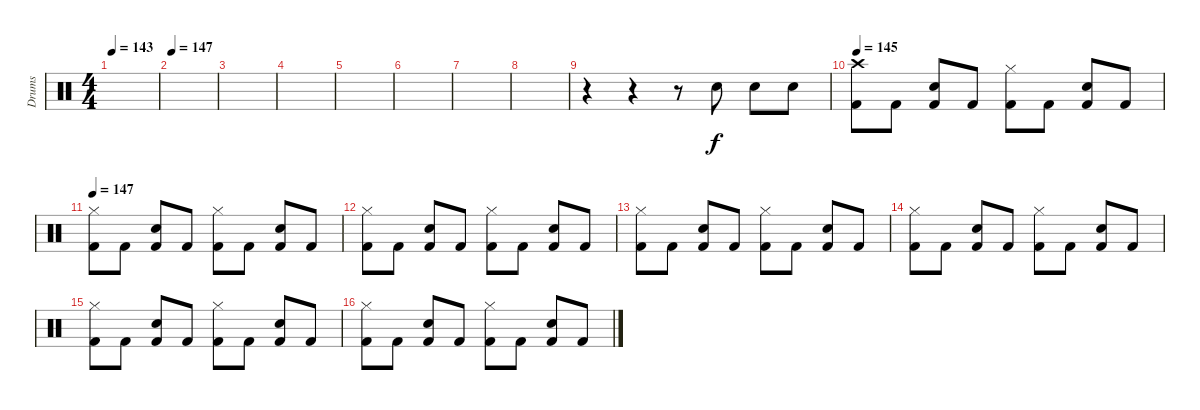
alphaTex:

\track ("Drums" "Drums") {instrument percussion}
\staff {score}
\articulation defaults
\ts (4 4)
\tempo 143
\clef neutral
\ks c
|
\tempo 147
|
|
|
|
|
|
|
r.4 r.4 r.8 "Snare (hit) 2".8 "Snare (hit) 2".8 "Snare (hit) 2".8 |
\tempo 145
("Crash high (hit)" "Kick (hit) 2").8 "Kick (hit) 2".8 ("Snare (hit) 2" "Kick (hit) 2").8 "Kick (hit) 2".8 ("Hi-Hat (closed)" "Kick (hit) 2").8 "Kick (hit) 2".8 ("Snare (hit) 2" "Kick (hit) 2").8 "Kick (hit) 2".8 |
\tempo 147
("Hi-Hat (closed)" "Kick (hit) 2").8 "Kick (hit) 2".8 ("Snare (hit) 2" "Kick (hit) 2").8 "Kick (hit) 2".8 ("Hi-Hat (closed)" "Kick (hit) 2").8 "Kick (hit) 2".8 ("Snare (hit) 2" "Kick (hit) 2").8 "Kick (hit) 2".8 |
("Hi-Hat (closed)" "Kick (hit) 2").8 "Kick (hit) 2".8 ("Snare (hit) 2" "Kick (hit) 2").8 "Kick (hit) 2".8 ("Hi-Hat (closed)" "Kick (hit) 2").8 "Kick (hit) 2".8 ("Snare (hit) 2" "Kick (hit) 2").8 "Kick (hit) 2".8 |
("Hi-Hat (closed)" "Kick (hit) 2").8 "Kick (hit) 2".8 ("Snare (hit) 2" "Kick (hit) 2").8 "Kick (hit) 2".8 ("Hi-Hat (closed)" "Kick (hit) 2").8 "Kick (hit) 2".8 ("Snare (hit) 2" "Kick (hit) 2").8 "Kick (hit) 2".8 |
("Hi-Hat (closed)" "Kick (hit) 2").8 "Kick (hit) 2".8 ("Snare (hit) 2" "Kick (hit) 2").8 "Kick (hit) 2".8 ("Hi-Hat (closed)" "Kick (hit) 2").8 "Kick (hit) 2".8 ("Snare (hit) 2" "Kick (hit) 2").8 "Kick (hit) 2".8 |
("Hi-Hat (closed)" "Kick (hit) 2").8 "Kick (hit) 2".8 ("Snare (hit) 2" "Kick (hit) 2").8 "Kick (hit) 2".8 ("Hi-Hat (closed)" "Kick (hit) 2").8 "Kick (hit) 2".8 ("Snare (hit) 2" "Kick (hit) 2").8 "Kick (hit) 2".8 |
("Hi-Hat (closed)" "Kick (hit) 2").8 "Kick (hit) 2".8 ("Snare (hit) 2" "Kick (hit) 2").8 "Kick (hit) 2".8 ("Hi-Hat (closed)" "Kick (hit) 2").8 "Kick (hit) 2".8 ("Snare (hit) 2" "Kick (hit) 2").8 "Kick (hit) 2".8
